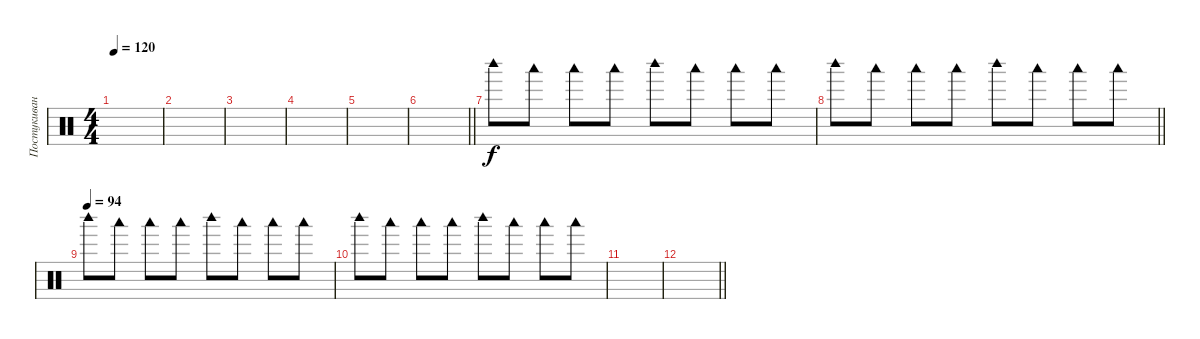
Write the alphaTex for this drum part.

\track ("Постукивания по верхней деке" "Постукиван") {instrument percussion}
\staff {score}
\articulation defaults
\ts (4 4)
\tempo 120
\clef neutral
\ks c
|
|
|
|
|
\barLineRight lightlight
|
"Woodblock high (hit)".8 "Woodblock low (hit)".8{volume 10} "Woodblock low (hit)".8 "Woodblock low (hit)".8 "Woodblock high (hit)".8{volume 13} "Woodblock low (hit)".8{volume 10} "Woodblock low (hit)".8 "Woodblock low (hit)".8 |
\barLineRight lightlight "Woodblock high (hit)".8 "Woodblock low (hit)".8{volume 10} "Woodblock low (hit)".8 "Woodblock low (hit)".8 "Woodblock high (hit)".8{volume 13} "Woodblock low (hit)".8{volume 10} "Woodblock low (hit)".8 "Woodblock low (hit)".8
|
\tempo (94)
"Woodblock high (hit)".8{volume 13} "Woodblock low (hit)".8{volume 10} "Woodblock low (hit)".8 "Woodblock low (hit)".8 "Woodblock high (hit)".8{volume 13} "Woodblock low (hit)".8{volume 10} "Woodblock low (hit)".8 "Woodblock low (hit)".8 |
"Woodblock high (hit)".8{volume 13} "Woodblock low (hit)".8{volume 10} "Woodblock low (hit)".8 "Woodblock low (hit)".8 "Woodblock high (hit)".8{volume 13} "Woodblock low (hit)".8{volume 10} "Woodblock low (hit)".8 "Woodblock low (hit)".8 |
|
\barLineRight lightlight
